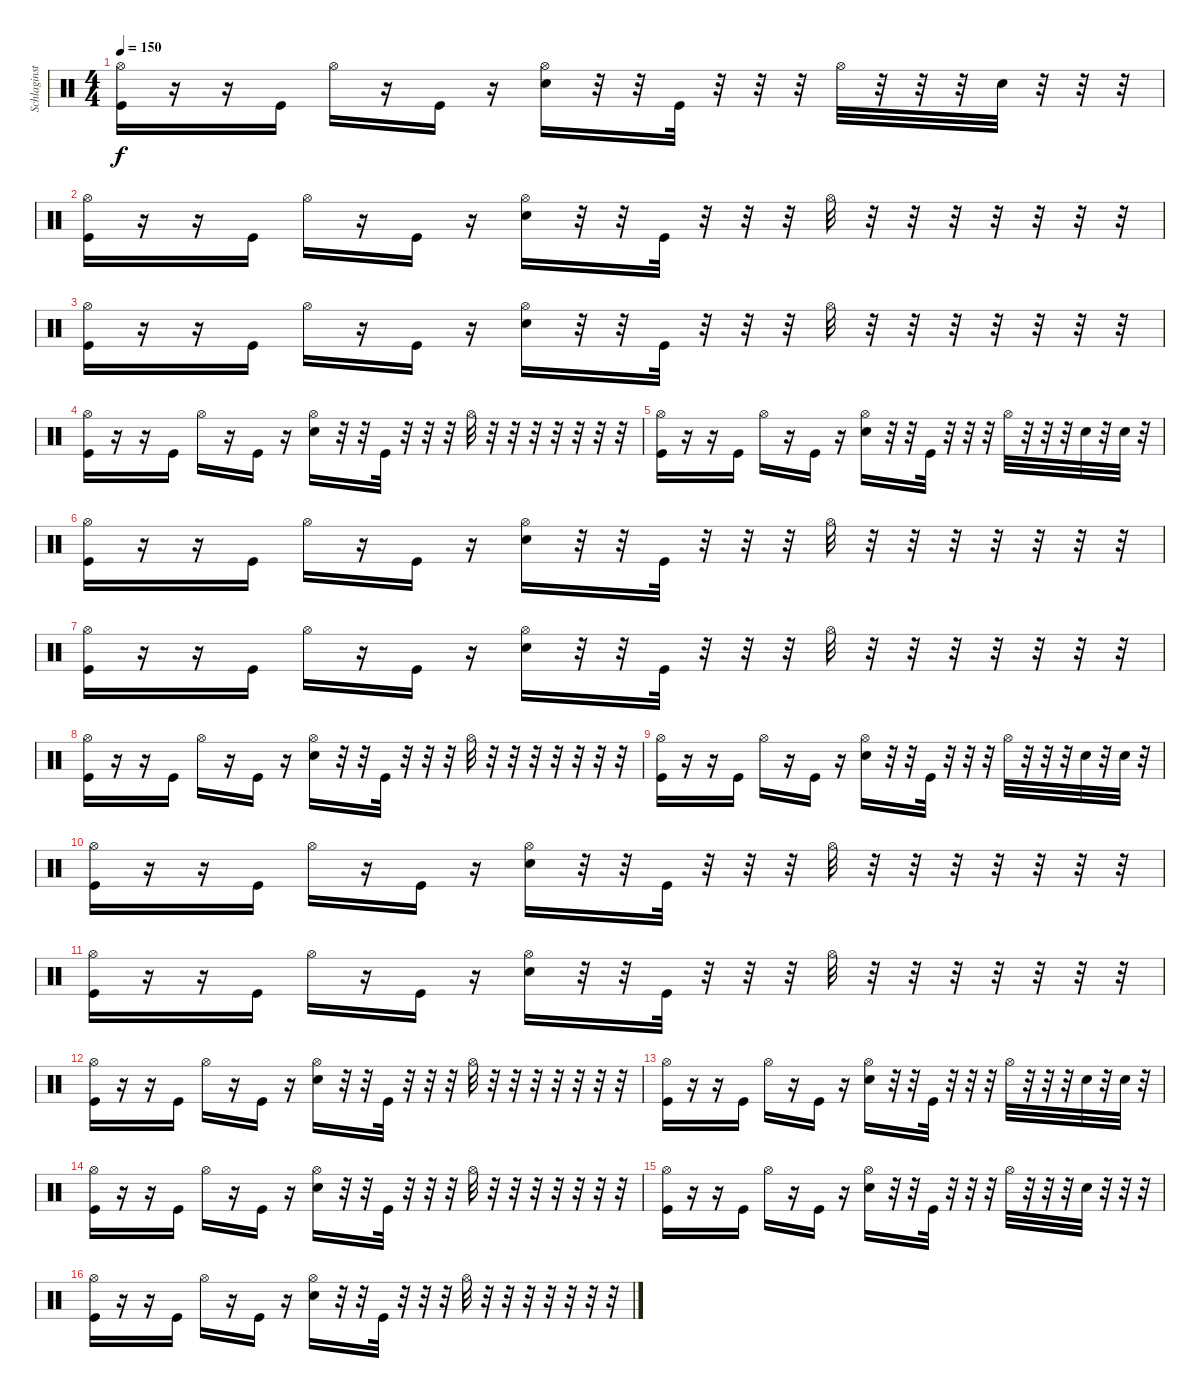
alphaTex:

\track ("Schlaginstrumente - Auswahl" "Schlaginst") {instrument percussion}
\staff {score}
\articulation defaults
\ts (4 4)
\tempo 150
\clef neutral
\ks c
("Kick (hit)" "Hi-Hat (open)").16{dy f} r.16 r.16 "Kick (hit)".16 "Hi-Hat (open)".16 r.16 "Kick (hit)".16 r.16 ("Electric Snare (hit)" "Hi-Hat (open)").16 r.32 r.32 "Kick (hit)".32 r.32 r.32 r.32 "Hi-Hat (open)".32 r.32 r.32 r.32 "Electric Snare (hit)".32 r.32 r.32 r.32 |
("Kick (hit)" "Hi-Hat (open)").16 r.16 r.16 "Kick (hit)".16 "Hi-Hat (open)".16 r.16 "Kick (hit)".16 r.16 ("Electric Snare (hit)" "Hi-Hat (open)").16 r.32 r.32 "Kick (hit)".32 r.32 r.32 r.32 "Hi-Hat (open)".32 r.32 r.32 r.32 r.32 r.32 r.32 r.32 |
("Kick (hit)" "Hi-Hat (open)").16 r.16 r.16 "Kick (hit)".16 "Hi-Hat (open)".16 r.16 "Kick (hit)".16 r.16 ("Electric Snare (hit)" "Hi-Hat (open)").16 r.32 r.32 "Kick (hit)".32 r.32 r.32 r.32 "Hi-Hat (open)".32 r.32 r.32 r.32 r.32 r.32 r.32 r.32 |
("Kick (hit)" "Hi-Hat (open)").16 r.16 r.16 "Kick (hit)".16 "Hi-Hat (open)".16 r.16 "Kick (hit)".16 r.16 ("Electric Snare (hit)" "Hi-Hat (open)").16 r.32 r.32 "Kick (hit)".32 r.32 r.32 r.32 "Hi-Hat (open)".32 r.32 r.32 r.32 r.32 r.32 r.32 r.32 |
("Kick (hit)" "Hi-Hat (open)").16 r.16 r.16 "Kick (hit)".16 "Hi-Hat (open)".16 r.16 "Kick (hit)".16 r.16 ("Electric Snare (hit)" "Hi-Hat (open)").16 r.32 r.32 "Kick (hit)".32 r.32 r.32 r.32 "Hi-Hat (open)".32 r.32 r.32 r.32 "Electric Snare (hit)".32 r.32 "Electric Snare (hit)".32 r.32 |
("Kick (hit)" "Hi-Hat (open)").16 r.16 r.16 "Kick (hit)".16 "Hi-Hat (open)".16 r.16 "Kick (hit)".16 r.16 ("Electric Snare (hit)" "Hi-Hat (open)").16 r.32 r.32 "Kick (hit)".32 r.32 r.32 r.32 "Hi-Hat (open)".32 r.32 r.32 r.32 r.32 r.32 r.32 r.32 |
("Kick (hit)" "Hi-Hat (open)").16 r.16 r.16 "Kick (hit)".16 "Hi-Hat (open)".16 r.16 "Kick (hit)".16 r.16 ("Electric Snare (hit)" "Hi-Hat (open)").16 r.32 r.32 "Kick (hit)".32 r.32 r.32 r.32 "Hi-Hat (open)".32 r.32 r.32 r.32 r.32 r.32 r.32 r.32 |
("Kick (hit)" "Hi-Hat (open)").16 r.16 r.16 "Kick (hit)".16 "Hi-Hat (open)".16 r.16 "Kick (hit)".16 r.16 ("Electric Snare (hit)" "Hi-Hat (open)").16 r.32 r.32 "Kick (hit)".32 r.32 r.32 r.32 "Hi-Hat (open)".32 r.32 r.32 r.32 r.32 r.32 r.32 r.32 |
("Kick (hit)" "Hi-Hat (open)").16 r.16 r.16 "Kick (hit)".16 "Hi-Hat (open)".16 r.16 "Kick (hit)".16 r.16 ("Electric Snare (hit)" "Hi-Hat (open)").16 r.32 r.32 "Kick (hit)".32 r.32 r.32 r.32 "Hi-Hat (open)".32 r.32 r.32 r.32 "Electric Snare (hit)".32 r.32 "Electric Snare (hit)".32 r.32 |
("Kick (hit)" "Hi-Hat (open)").16 r.16 r.16 "Kick (hit)".16 "Hi-Hat (open)".16 r.16 "Kick (hit)".16 r.16 ("Electric Snare (hit)" "Hi-Hat (open)").16 r.32 r.32 "Kick (hit)".32 r.32 r.32 r.32 "Hi-Hat (open)".32 r.32 r.32 r.32 r.32 r.32 r.32 r.32 |
("Kick (hit)" "Hi-Hat (open)").16 r.16 r.16 "Kick (hit)".16 "Hi-Hat (open)".16 r.16 "Kick (hit)".16 r.16 ("Electric Snare (hit)" "Hi-Hat (open)").16 r.32 r.32 "Kick (hit)".32 r.32 r.32 r.32 "Hi-Hat (open)".32 r.32 r.32 r.32 r.32 r.32 r.32 r.32 |
("Kick (hit)" "Hi-Hat (open)").16 r.16 r.16 "Kick (hit)".16 "Hi-Hat (open)".16 r.16 "Kick (hit)".16 r.16 ("Electric Snare (hit)" "Hi-Hat (open)").16 r.32 r.32 "Kick (hit)".32 r.32 r.32 r.32 "Hi-Hat (open)".32 r.32 r.32 r.32 r.32 r.32 r.32 r.32 |
("Kick (hit)" "Hi-Hat (open)").16 r.16 r.16 "Kick (hit)".16 "Hi-Hat (open)".16 r.16 "Kick (hit)".16 r.16 ("Electric Snare (hit)" "Hi-Hat (open)").16 r.32 r.32 "Kick (hit)".32 r.32 r.32 r.32 "Hi-Hat (open)".32 r.32 r.32 r.32 "Electric Snare (hit)".32 r.32 "Electric Snare (hit)".32 r.32 |
("Kick (hit)" "Hi-Hat (open)").16 r.16 r.16 "Kick (hit)".16 "Hi-Hat (open)".16 r.16 "Kick (hit)".16 r.16 ("Electric Snare (hit)" "Hi-Hat (open)").16 r.32 r.32 "Kick (hit)".32 r.32 r.32 r.32 "Hi-Hat (open)".32 r.32 r.32 r.32 r.32 r.32 r.32 r.32 |
("Kick (hit)" "Hi-Hat (open)").16 r.16 r.16 "Kick (hit)".16 "Hi-Hat (open)".16 r.16 "Kick (hit)".16 r.16 ("Electric Snare (hit)" "Hi-Hat (open)").16 r.32 r.32 "Kick (hit)".32 r.32 r.32 r.32 "Hi-Hat (open)".32 r.32 r.32 r.32 "Electric Snare (hit)".32 r.32 r.32 r.32 |
("Kick (hit)" "Hi-Hat (open)").16 r.16 r.16 "Kick (hit)".16 "Hi-Hat (open)".16 r.16 "Kick (hit)".16 r.16 ("Electric Snare (hit)" "Hi-Hat (open)").16 r.32 r.32 "Kick (hit)".32 r.32 r.32 r.32 "Hi-Hat (open)".32 r.32 r.32 r.32 r.32 r.32 r.32 r.32
